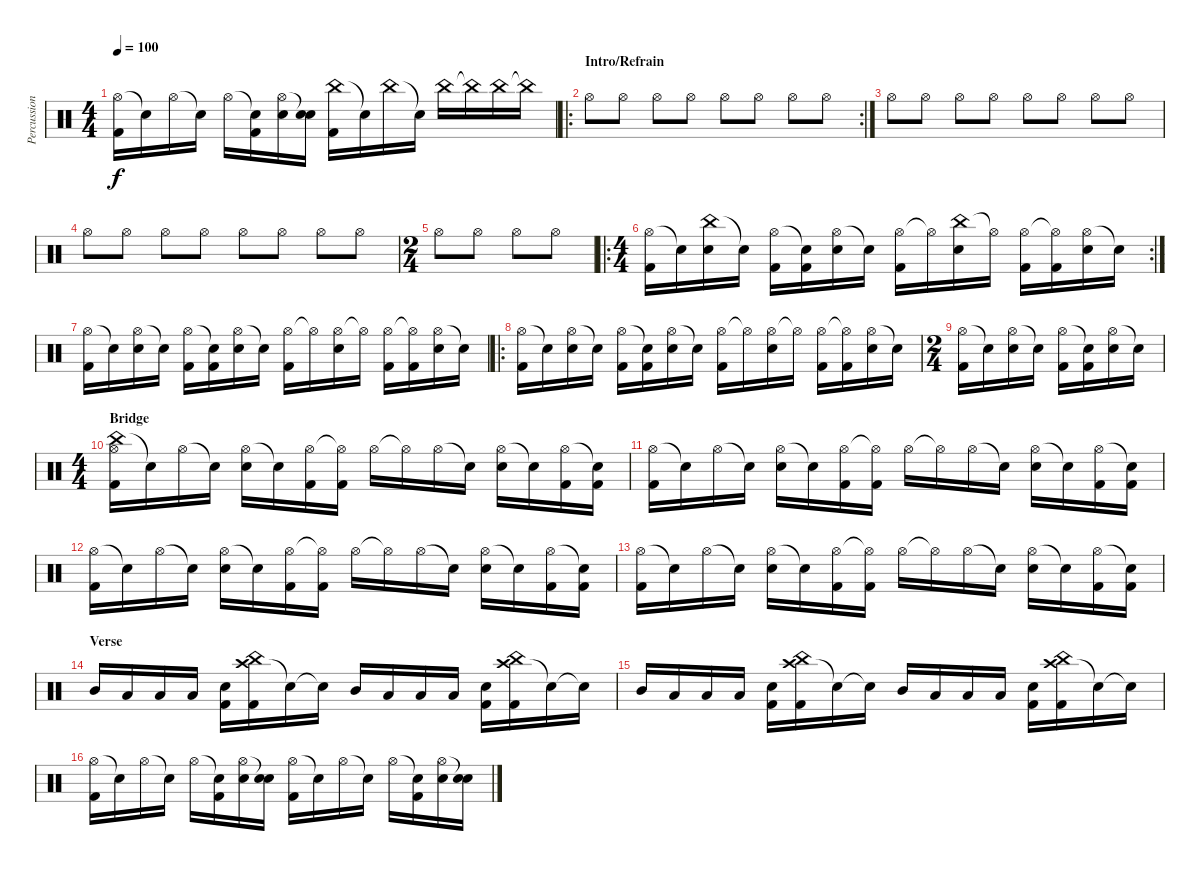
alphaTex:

\track ("Percussion" "Percussion") {instrument percussion}
\staff {score}
\articulation defaults
\ts (4 4)
\tempo 100
\clef neutral
\ks c
("Hi-Hat (open)" "Kick (hit) 2").16{dy f} "Snare (hit)"{t}.16 "Hi-Hat (open)".16 "Snare (hit)"{t}.16 "Hi-Hat (open)".16 ("Snare (hit)"{t} "Kick (hit) 2").16 ("Hi-Hat (open)" "Snare (hit) 2").16 ("Snare (hit)"{t} "Snare (hit) 2").16 ("China (hit)" "Kick (hit) 2").16 "Snare (hit)"{t}.16 "China (hit)".16 "Snare (hit)"{t}.16 "China (hit)".16 "China (hit)"{t}.16 "China (hit)".16 "China (hit)"{t}.16 |
\ro
\rc 2
\section ("" "Intro/Refrain")
"Hi-Hat (open)".8 "Hi-Hat (open)".8 "Hi-Hat (open)".8 "Hi-Hat (open)".8 "Hi-Hat (open)".8 "Hi-Hat (open)".8 "Hi-Hat (open)".8 "Hi-Hat (open)".8 |
"Hi-Hat (open)".8 "Hi-Hat (open)".8 "Hi-Hat (open)".8 "Hi-Hat (open)".8 "Hi-Hat (open)".8 "Hi-Hat (open)".8 "Hi-Hat (open)".8 "Hi-Hat (open)".8 |
"Hi-Hat (open)".8 "Hi-Hat (open)".8 "Hi-Hat (open)".8 "Hi-Hat (open)".8 "Hi-Hat (open)".8 "Hi-Hat (open)".8 "Hi-Hat (open)".8 "Hi-Hat (open)".8 |
\ts (2 4)
"Hi-Hat (open)".8 "Hi-Hat (open)".8 "Hi-Hat (open)".8 "Hi-Hat (open)".8 |
\ro
\rc 2
\ts (4 4)
("Hi-Hat (open)" "Kick (hit) 2").16 "Snare (hit)"{t}.16 ("China (hit)" "Snare (hit) 2").16 "Snare (hit)"{t}.16 ("Hi-Hat (open)" "Kick (hit) 2").16 ("Snare (hit)"{t} "Kick (hit) 2").16 ("Hi-Hat (open)" "Snare (hit) 2").16 "Snare (hit)"{t}.16 ("Hi-Hat (open)" "Kick (hit) 2").16 "Hi-Hat (open)"{t}.16 ("China (hit)" "Snare (hit) 2").16 "Hi-Hat (open)"{t}.16 ("Hi-Hat (open)" "Kick (hit) 2").16 ("Hi-Hat (open)"{t} "Kick (hit) 2").16 ("Hi-Hat (open)" "Snare (hit) 2").16 "Snare (hit)"{t}.16 |
("Hi-Hat (open)" "Kick (hit) 2").16 "Snare (hit)"{t}.16 ("Hi-Hat (open)" "Snare (hit) 2").16 "Snare (hit)"{t}.16 ("Hi-Hat (open)" "Kick (hit) 2").16 ("Snare (hit)"{t} "Kick (hit) 2").16 ("Hi-Hat (open)" "Snare (hit) 2").16 "Snare (hit)"{t}.16 ("Hi-Hat (open)" "Kick (hit) 2").16 "Hi-Hat (open)"{t}.16 ("Hi-Hat (open)" "Snare (hit) 2").16 "Hi-Hat (open)"{t}.16 ("Hi-Hat (open)" "Kick (hit) 2").16 ("Hi-Hat (open)"{t} "Kick (hit) 2").16 ("Hi-Hat (open)" "Snare (hit) 2").16 "Snare (hit)"{t}.16 |
\ro
("Hi-Hat (open)" "Kick (hit) 2").16 "Snare (hit)"{t}.16 ("Hi-Hat (open)" "Snare (hit) 2").16 "Snare (hit)"{t}.16 ("Hi-Hat (open)" "Kick (hit) 2").16 ("Snare (hit)"{t} "Kick (hit) 2").16 ("Hi-Hat (open)" "Snare (hit) 2").16 "Snare (hit)"{t}.16 ("Hi-Hat (open)" "Kick (hit) 2").16 "Hi-Hat (open)"{t}.16 ("Hi-Hat (open)" "Snare (hit) 2").16 "Hi-Hat (open)"{t}.16 ("Hi-Hat (open)" "Kick (hit) 2").16 ("Hi-Hat (open)"{t} "Kick (hit) 2").16 ("Hi-Hat (open)" "Snare (hit) 2").16 "Snare (hit)"{t}.16 |
\ts (2 4)
("Hi-Hat (open)" "Kick (hit) 2").16 "Snare (hit)"{t}.16 ("Hi-Hat (open)" "Snare (hit) 2").16 "Snare (hit)"{t}.16 ("Hi-Hat (open)" "Kick (hit) 2").16 ("Snare (hit)"{t} "Kick (hit) 2").16 ("Hi-Hat (open)" "Snare (hit) 2").16 "Snare (hit)"{t}.16 |
\ts (4 4)
\section ("" "Bridge")
("China (hit)" "Hi-Hat (open)" "Kick (hit) 2").16 "Snare (hit)"{t}.16 "Hi-Hat (open)".16 "Snare (hit)"{t}.16 ("Hi-Hat (open)" "Snare (hit) 2").16 "Snare (hit)"{t}.16 ("Hi-Hat (open)" "Kick (hit) 2").16 ("Hi-Hat (open)"{t} "Kick (hit) 2").16 "Hi-Hat (open)".16 "Hi-Hat (open)"{t}.16 "Hi-Hat (open)".16 "Snare (hit)"{t}.16 ("Hi-Hat (open)" "Snare (hit) 2").16 "Snare (hit)"{t}.16 ("Hi-Hat (open)" "Kick (hit) 2").16 ("Snare (hit)"{t} "Kick (hit) 2").16 |
("Hi-Hat (open)" "Kick (hit) 2").16 "Snare (hit)"{t}.16 "Hi-Hat (open)".16 "Snare (hit)"{t}.16 ("Hi-Hat (open)" "Snare (hit) 2").16 "Snare (hit)"{t}.16 ("Hi-Hat (open)" "Kick (hit) 2").16 ("Hi-Hat (open)"{t} "Kick (hit) 2").16 "Hi-Hat (open)".16 "Hi-Hat (open)"{t}.16 "Hi-Hat (open)".16 "Snare (hit)"{t}.16 ("Hi-Hat (open)" "Snare (hit) 2").16 "Snare (hit)"{t}.16 ("Hi-Hat (open)" "Kick (hit) 2").16 ("Snare (hit)"{t} "Kick (hit) 2").16 |
("Hi-Hat (open)" "Kick (hit) 2").16 "Snare (hit)"{t}.16 "Hi-Hat (open)".16 "Snare (hit)"{t}.16 ("Hi-Hat (open)" "Snare (hit) 2").16 "Snare (hit)"{t}.16 ("Hi-Hat (open)" "Kick (hit) 2").16 ("Hi-Hat (open)"{t} "Kick (hit) 2").16 "Hi-Hat (open)".16 "Hi-Hat (open)"{t}.16 "Hi-Hat (open)".16 "Snare (hit)"{t}.16 ("Hi-Hat (open)" "Snare (hit) 2").16 "Snare (hit)"{t}.16 ("Hi-Hat (open)" "Kick (hit) 2").16 ("Snare (hit)"{t} "Kick (hit) 2").16 |
("Hi-Hat (open)" "Kick (hit) 2").16 "Snare (hit)"{t}.16 "Hi-Hat (open)".16 "Snare (hit)"{t}.16 ("Hi-Hat (open)" "Snare (hit) 2").16 "Snare (hit)"{t}.16 ("Hi-Hat (open)" "Kick (hit) 2").16 ("Hi-Hat (open)"{t} "Kick (hit) 2").16 "Hi-Hat (open)".16 "Hi-Hat (open)"{t}.16 "Hi-Hat (open)".16 "Snare (hit)"{t}.16 ("Hi-Hat (open)" "Snare (hit) 2").16 "Snare (hit)"{t}.16 ("Hi-Hat (open)" "Kick (hit) 2").16 ("Snare (hit)"{t} "Kick (hit) 2").16 |
\section ("" "Verse")
"Mid Tom (hit)".16 "Low Tom (hit)".16 "Low Floor Tom (hit)".16 "Low Floor Tom (hit)".16 ("Snare (hit) 2" "Kick (hit) 2").16 ("Crash high (hit)" "China (hit)" "Kick (hit) 2").16 "Snare (hit)"{t}.16 "Snare (hit)"{t}.16 "Mid Tom (hit)".16 "Low Tom (hit)".16 "Low Floor Tom (hit)".16 "Low Floor Tom (hit)".16 ("Snare (hit) 2" "Kick (hit) 2").16 ("Crash high (hit)" "China (hit)" "Kick (hit) 2").16 "Snare (hit)"{t}.16 "Snare (hit)"{t}.16 |
"Mid Tom (hit)".16 "Low Tom (hit)".16 "Low Floor Tom (hit)".16 "Low Floor Tom (hit)".16 ("Snare (hit) 2" "Kick (hit) 2").16 ("Crash high (hit)" "China (hit)" "Kick (hit) 2").16 "Snare (hit)"{t}.16 "Snare (hit)"{t}.16 "Mid Tom (hit)".16 "Low Tom (hit)".16 "Low Floor Tom (hit)".16 "Low Floor Tom (hit)".16 ("Snare (hit) 2" "Kick (hit) 2").16 ("Crash high (hit)" "China (hit)" "Kick (hit) 2").16 "Snare (hit)"{t}.16 "Snare (hit)"{t}.16 |
("Hi-Hat (open)" "Kick (hit) 2").16 "Snare (hit)"{t}.16 "Hi-Hat (open)".16 "Snare (hit)"{t}.16 "Hi-Hat (open)".16 ("Snare (hit)"{t} "Kick (hit) 2").16 ("Hi-Hat (open)" "Snare (hit) 2").16 ("Snare (hit)"{t} "Snare (hit) 2").16 ("Hi-Hat (open)" "Kick (hit) 2").16 "Snare (hit)"{t}.16 "Hi-Hat (open)".16 "Snare (hit)"{t}.16 "Hi-Hat (open)".16 ("Snare (hit)"{t} "Kick (hit) 2").16 ("Hi-Hat (open)" "Snare (hit) 2").16 ("Snare (hit)"{t} "Snare (hit) 2").16
